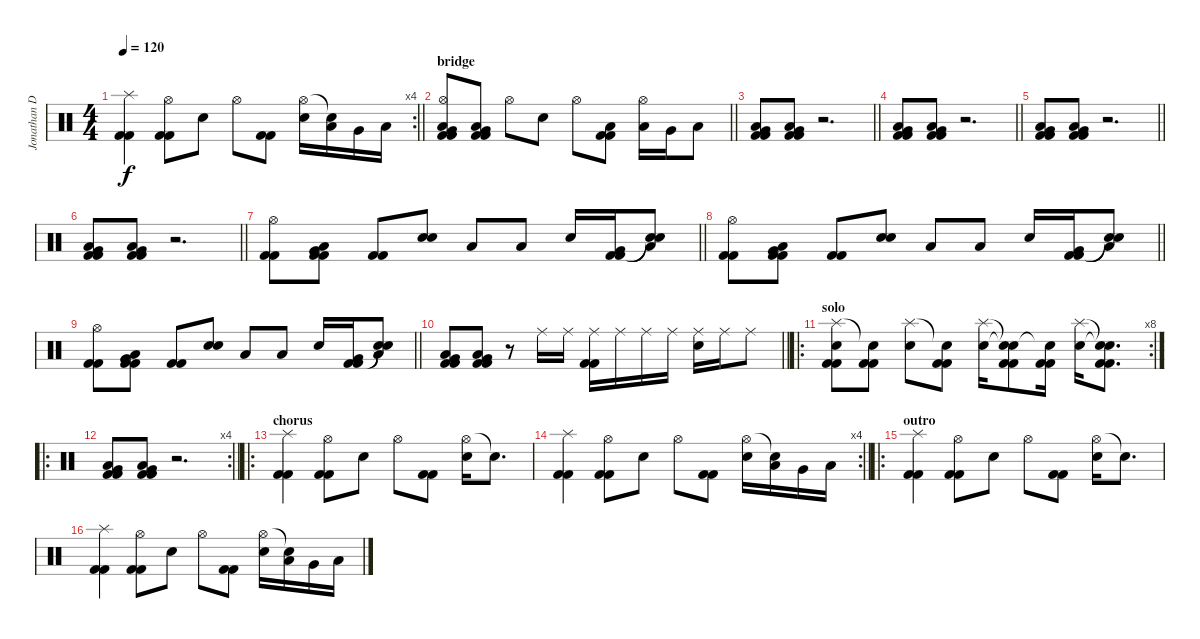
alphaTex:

\track ("Jonathan Davis" "Jonathan D") {instrument percussion}
\staff {score}
\articulation defaults
\rc 4
\ts (4 4)
\tempo 120
\clef neutral
\barLineRight lightlight
\ks c
("Splash (hit)" "Kick (hit) 2" "Kick (hit) 2").4{dy f} ("Hi-Hat (open)" "Kick (hit) 2" "Kick (hit) 2").8 "Snare (hit) 2".8 "Hi-Hat (open)".8 ("Kick (hit) 2" "Kick (hit) 2").8 ("Hi-Hat (open)" "Snare (hit) 2").16 ("Snare (hit)"{t} "Low Tom (hit)").16 "Very Low Tom (hit)".16 "Low Floor Tom (hit)".16 |
\section ("" "bridge")
\barLineRight lightlight
("Hi-Hat (open)" "Low Floor Tom (hit)" "Very Low Tom (hit)" "Kick (hit) 2" "Kick (hit) 2").8 ("Low Floor Tom (hit)" "Very Low Tom (hit)" "Kick (hit) 2" "Kick (hit) 2").8 "Hi-Hat (open)".8 "Snare (hit) 2".8 "Hi-Hat (open)".8 ("Low Floor Tom (hit)" "Kick (hit) 2" "Kick (hit) 2").8 ("Hi-Hat (open)" "Low Tom (hit)").16 "Very Low Tom (hit)".16 "Low Floor Tom (hit)".8 |
\barLineRight lightlight
("Low Floor Tom (hit)" "Very Low Tom (hit)" "Kick (hit) 2" "Kick (hit) 2").8 ("Low Floor Tom (hit)" "Very Low Tom (hit)" "Kick (hit) 2" "Kick (hit) 2").8 r.2{d} |
\barLineRight lightlight
("Low Floor Tom (hit)" "Very Low Tom (hit)" "Kick (hit) 2" "Kick (hit) 2").8 ("Low Floor Tom (hit)" "Very Low Tom (hit)" "Kick (hit) 2" "Kick (hit) 2").8 r.2{d} |
\barLineRight lightlight
("Low Floor Tom (hit)" "Very Low Tom (hit)" "Kick (hit) 2" "Kick (hit) 2").8 ("Low Floor Tom (hit)" "Very Low Tom (hit)" "Kick (hit) 2" "Kick (hit) 2").8 r.2{d} |
\barLineRight lightlight
("Low Floor Tom (hit)" "Very Low Tom (hit)" "Kick (hit) 2" "Kick (hit) 2").8 ("Low Floor Tom (hit)" "Very Low Tom (hit)" "Kick (hit) 2" "Kick (hit) 2").8 r.2{d} |
\barLineRight lightlight
("Hi-Hat (open)" "Kick (hit) 2" "Kick (hit) 2").8 ("Low Floor Tom (hit)" "Very Low Tom (hit)" "Kick (hit) 2" "Kick (hit) 2").8 ("Kick (hit) 2" "Kick (hit) 2").8 ("Snare (hit) 2" "Snare (hit) 2").8 "Low Floor Tom (hit)".8 "Low Floor Tom (hit)".8 "Snare (hit) 2".16 ("Very Low Tom (hit)" "Kick (hit) 2" "Kick (hit) 2").16 ("Low Floor Tom (hit)" "Snare (hit)"{t} "Snare (hit)"{t}).8 |
\barLineRight lightlight
("Hi-Hat (open)" "Kick (hit) 2" "Kick (hit) 2").8 ("Low Floor Tom (hit)" "Very Low Tom (hit)" "Kick (hit) 2" "Kick (hit) 2").8 ("Kick (hit) 2" "Kick (hit) 2").8 ("Snare (hit) 2" "Snare (hit) 2").8 "Low Floor Tom (hit)".8 "Low Floor Tom (hit)".8 "Snare (hit) 2".16 ("Very Low Tom (hit)" "Kick (hit) 2" "Kick (hit) 2").16 ("Low Floor Tom (hit)" "Snare (hit)"{t} "Snare (hit)"{t}).8 |
\barLineRight lightlight
("Hi-Hat (open)" "Kick (hit) 2" "Kick (hit) 2").8 ("Low Floor Tom (hit)" "Very Low Tom (hit)" "Kick (hit) 2" "Kick (hit) 2").8 ("Kick (hit) 2" "Kick (hit) 2").8 ("Snare (hit) 2" "Snare (hit) 2").8 "Low Floor Tom (hit)".8 "Low Floor Tom (hit)".8 "Snare (hit) 2".16 ("Very Low Tom (hit)" "Kick (hit) 2" "Kick (hit) 2").16 ("Low Floor Tom (hit)" "Snare (hit)"{t} "Snare (hit)"{t}).8 |
\barLineRight lightlight
("Very Low Tom (hit)" "Low Floor Tom (hit)" "Kick (hit) 2" "Kick (hit) 2").8 ("Very Low Tom (hit)" "Low Floor Tom (hit)" "Kick (hit) 2" "Kick (hit) 2").8 r.8 "Ride (middle)".16 "Ride (middle)".16 ("Ride (middle)" "Kick (hit) 2" "Kick (hit) 2").16 "Ride (middle)".16 "Ride (middle)".16 "Ride (middle)".16 ("Ride (middle)" "Snare (hit) 2").16 "Ride (middle)".16 "Ride (middle)".8 |
\ro
\rc 8
\section ("" "solo")
("Splash (hit)" "Snare (hit) 2" "Kick (hit) 2" "Kick (hit) 2").8 ("Snare (hit)"{t} "Kick (hit) 2" "Kick (hit) 2").8 ("Splash (hit)" "Snare (hit) 2").8 ("Snare (hit)"{t} "Kick (hit) 2" "Kick (hit) 2").8 ("Splash (hit)" "Snare (hit) 2").16 ("Snare (hit)"{t} "Snare (hit)"{t} "Kick (hit) 2" "Kick (hit) 2").8 ("Snare (hit)"{t} "Kick (hit) 2" "Kick (hit) 2").16 ("Splash (hit)" "Snare (hit) 2").16 ("Snare (hit)"{t} "Snare (hit)"{t} "Kick (hit) 2" "Kick (hit) 2").8{d} |
\ro
\rc 4
\barLineRight lightlight
("Very Low Tom (hit)" "Low Floor Tom (hit)" "Kick (hit) 2" "Kick (hit) 2").8 ("Very Low Tom (hit)" "Low Floor Tom (hit)" "Kick (hit) 2" "Kick (hit) 2").8 r.2{d} |
\ro
\section ("" "chorus")
("Splash (hit)" "Kick (hit) 2" "Kick (hit) 2").4 ("Hi-Hat (open)" "Kick (hit) 2" "Kick (hit) 2").8 "Snare (hit) 2".8 "Hi-Hat (open)".8 ("Kick (hit) 2" "Kick (hit) 2").8 ("Hi-Hat (open)" "Snare (hit) 2").16 "Snare (hit)"{t}.8{d} |
\rc 4
\barLineRight lightlight
("Splash (hit)" "Kick (hit) 2" "Kick (hit) 2").4 ("Hi-Hat (open)" "Kick (hit) 2" "Kick (hit) 2").8 "Snare (hit) 2".8 "Hi-Hat (open)".8 ("Kick (hit) 2" "Kick (hit) 2").8 ("Hi-Hat (open)" "Snare (hit) 2").16 ("Snare (hit)"{t} "Low Tom (hit)").16 "Very Low Tom (hit)".16 "Low Floor Tom (hit)".16 |
\ro
\section ("" "outro")
("Splash (hit)" "Kick (hit) 2" "Kick (hit) 2").4 ("Hi-Hat (open)" "Kick (hit) 2" "Kick (hit) 2").8 "Snare (hit) 2".8 "Hi-Hat (open)".8 ("Kick (hit) 2" "Kick (hit) 2").8 ("Hi-Hat (open)" "Snare (hit) 2").16 "Snare (hit)"{t}.8{d} |
("Splash (hit)" "Kick (hit) 2" "Kick (hit) 2").4 ("Hi-Hat (open)" "Kick (hit) 2" "Kick (hit) 2").8 "Snare (hit) 2".8 "Hi-Hat (open)".8 ("Kick (hit) 2" "Kick (hit) 2").8 ("Hi-Hat (open)" "Snare (hit) 2").16 ("Snare (hit)"{t} "Low Tom (hit)").16 "Very Low Tom (hit)".16 "Low Floor Tom (hit)".16
